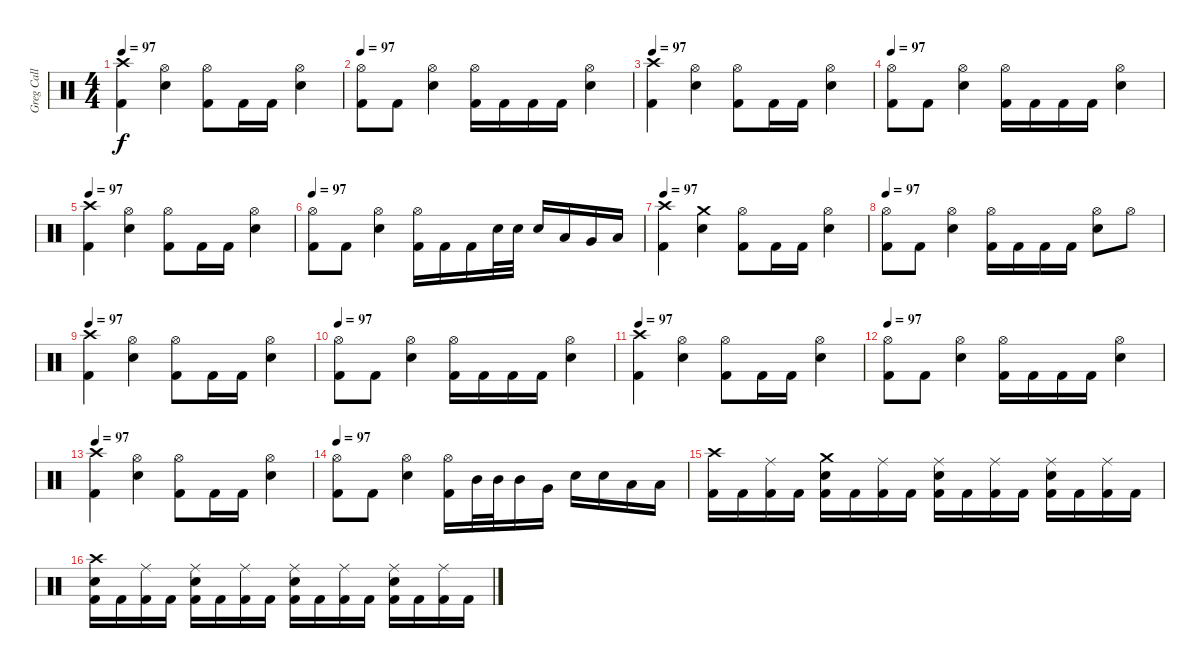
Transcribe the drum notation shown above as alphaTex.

\track ("Greg Call (Drums)" "Greg Call ") {instrument percussion}
\staff {score}
\articulation defaults
\ts (4 4)
\tempo 97
\clef neutral
\ks c
("Crash high (hit)" "Kick (hit) 2").4{dy f} ("Hi-Hat (open)" "Snare (hit) 2").4 ("Hi-Hat (open)" "Kick (hit) 2").8 "Kick (hit) 2".16 "Kick (hit) 2".16 ("Hi-Hat (open)" "Snare (hit) 2").4 |
\tempo 97
("Hi-Hat (open)" "Kick (hit) 2").8 "Kick (hit) 2".8 ("Hi-Hat (open)" "Snare (hit) 2").4 ("Hi-Hat (open)" "Kick (hit) 2").16 "Kick (hit) 2".16 "Kick (hit) 2".16 "Kick (hit) 2".16 ("Hi-Hat (open)" "Snare (hit) 2").4 |
\tempo 97
("Crash high (hit)" "Kick (hit) 2").4 ("Hi-Hat (open)" "Snare (hit) 2").4 ("Hi-Hat (open)" "Kick (hit) 2").8 "Kick (hit) 2".16 "Kick (hit) 2".16 ("Hi-Hat (open)" "Snare (hit) 2").4 |
\tempo 97
("Hi-Hat (open)" "Kick (hit) 2").8 "Kick (hit) 2".8 ("Hi-Hat (open)" "Snare (hit) 2").4 ("Hi-Hat (open)" "Kick (hit) 2").16 "Kick (hit) 2".16 "Kick (hit) 2".16 "Kick (hit) 2".16 ("Hi-Hat (open)" "Snare (hit) 2").4 |
\tempo 97
("Crash high (hit)" "Kick (hit) 2").4 ("Hi-Hat (open)" "Snare (hit) 2").4 ("Hi-Hat (open)" "Kick (hit) 2").8 "Kick (hit) 2".16 "Kick (hit) 2".16 ("Hi-Hat (open)" "Snare (hit) 2").4 |
\tempo 97
("Hi-Hat (open)" "Kick (hit) 2").8 "Kick (hit) 2".8 ("Hi-Hat (open)" "Snare (hit) 2").4 ("Hi-Hat (open)" "Kick (hit) 2").16 "Kick (hit) 2".16 "Kick (hit) 2".16 "Snare (hit) 2".32 "Snare (hit) 2".32 "Snare (hit) 2".16 "Low Tom (hit)".16 "Very Low Tom (hit)".16 "Low Floor Tom (hit)".16 |
\tempo 97
("Crash high (hit)" "Kick (hit) 2").4 ("Crash medium (hit)" "Snare (hit) 2").4 ("Hi-Hat (open)" "Kick (hit) 2").8 "Kick (hit) 2".16 "Kick (hit) 2".16 ("Hi-Hat (open)" "Snare (hit) 2").4 |
\tempo 97
("Hi-Hat (open)" "Kick (hit) 2").8 "Kick (hit) 2".8 ("Hi-Hat (open)" "Snare (hit) 2").4 ("Hi-Hat (open)" "Kick (hit) 2").16 "Kick (hit) 2".16 "Kick (hit) 2".16 "Kick (hit) 2".16 ("Hi-Hat (open)" "Snare (hit) 2").8 "Hi-Hat (open)".8 |
\tempo 97
("Crash high (hit)" "Kick (hit) 2").4 ("Hi-Hat (open)" "Snare (hit) 2").4 ("Hi-Hat (open)" "Kick (hit) 2").8 "Kick (hit) 2".16 "Kick (hit) 2".16 ("Hi-Hat (open)" "Snare (hit) 2").4 |
\tempo 97
("Hi-Hat (open)" "Kick (hit) 2").8 "Kick (hit) 2".8 ("Hi-Hat (open)" "Snare (hit) 2").4 ("Hi-Hat (open)" "Kick (hit) 2").16 "Kick (hit) 2".16 "Kick (hit) 2".16 "Kick (hit) 2".16 ("Hi-Hat (open)" "Snare (hit) 2").4 |
\tempo 97
("Crash high (hit)" "Kick (hit) 2").4 ("Hi-Hat (open)" "Snare (hit) 2").4 ("Hi-Hat (open)" "Kick (hit) 2").8 "Kick (hit) 2".16 "Kick (hit) 2".16 ("Hi-Hat (open)" "Snare (hit) 2").4 |
\tempo 97
("Hi-Hat (open)" "Kick (hit) 2").8 "Kick (hit) 2".8 ("Hi-Hat (open)" "Snare (hit) 2").4 ("Hi-Hat (open)" "Kick (hit) 2").16 "Kick (hit) 2".16 "Kick (hit) 2".16 "Kick (hit) 2".16 ("Hi-Hat (open)" "Snare (hit) 2").4 |
\tempo 97
("Crash high (hit)" "Kick (hit) 2").4 ("Hi-Hat (open)" "Snare (hit) 2").4 ("Hi-Hat (open)" "Kick (hit) 2").8 "Kick (hit) 2".16 "Kick (hit) 2".16 ("Hi-Hat (open)" "Snare (hit) 2").4 |
\tempo 97
("Hi-Hat (open)" "Kick (hit) 2").8 "Kick (hit) 2".8 ("Hi-Hat (open)" "Snare (hit) 2").4 ("Hi-Hat (open)" "Kick (hit) 2").16 "Mid Tom (hit)".32 "Mid Tom (hit)".32 "Mid Tom (hit)".16 "Very Low Tom (hit)".16 "Snare (hit) 2".16 "Snare (hit) 2".16 "Low Floor Tom (hit)".16 "Low Floor Tom (hit)".16 |
("Crash high (hit)" "Kick (hit) 2").16 "Kick (hit) 2".16 ("Ride (middle)" "Kick (hit) 2").16 "Kick (hit) 2".16 ("Snare (hit) 2" "Crash medium (hit)" "Kick (hit) 2").16 "Kick (hit) 2".16 ("Ride (middle)" "Kick (hit) 2").16 "Kick (hit) 2".16 ("Snare (hit) 2" "Ride (middle)" "Kick (hit) 2").16 "Kick (hit) 2".16 ("Ride (middle)" "Kick (hit) 2").16 "Kick (hit) 2".16 ("Ride (middle)" "Snare (hit) 2" "Kick (hit) 2").16 "Kick (hit) 2".16 ("Ride (middle)" "Kick (hit) 2").16 "Kick (hit) 2".16 |
("Snare (hit) 2" "Crash high (hit)" "Kick (hit) 2").16 "Kick (hit) 2".16 ("Ride (middle)" "Kick (hit) 2").16 "Kick (hit) 2".16 ("Snare (hit) 2" "Ride (middle)" "Kick (hit) 2").16 "Kick (hit) 2".16 ("Ride (middle)" "Kick (hit) 2").16 "Kick (hit) 2".16 ("Snare (hit) 2" "Ride (middle)" "Kick (hit) 2").16 "Kick (hit) 2".16 ("Ride (middle)" "Kick (hit) 2").16 "Kick (hit) 2".16 ("Ride (middle)" "Snare (hit) 2" "Kick (hit) 2").16 "Kick (hit) 2".16 ("Ride (middle)" "Kick (hit) 2").16 "Kick (hit) 2".16
